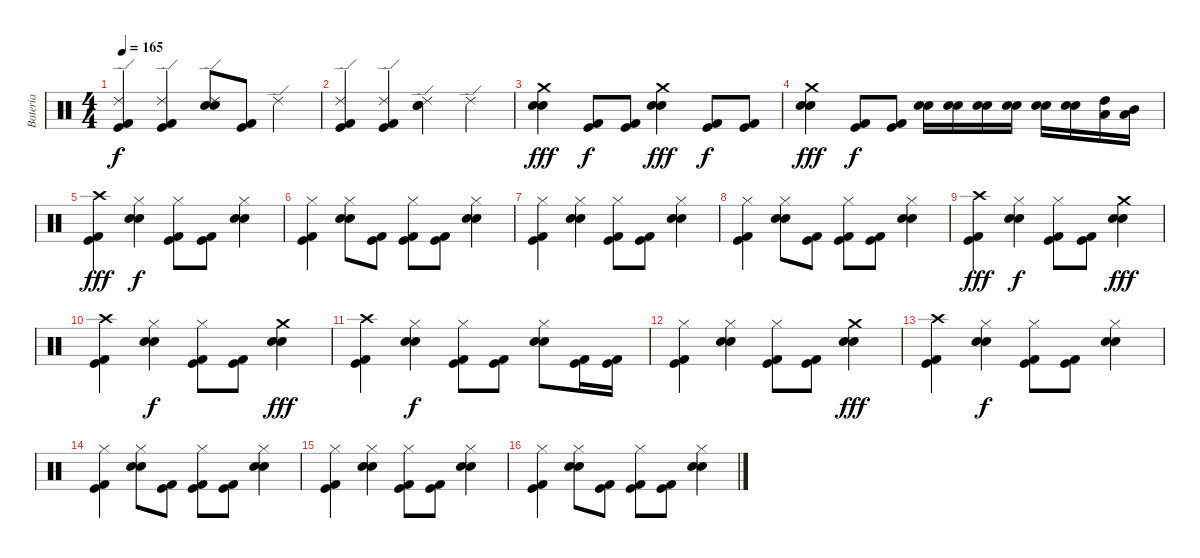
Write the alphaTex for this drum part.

\track ("Bateria" "Bateria") {instrument percussion}
\staff {score}
\articulation defaults
\ts (4 4)
\tempo 165
\clef neutral
\ks c
("Ride (edge) 2" "Kick (hit) 2" "Kick (hit)").4{dy f} ("Ride (edge) 2" "Kick (hit) 2" "Kick (hit)").4 ("Ride (edge) 2" "Electric Snare (hit)" "Snare (hit) 2").8 ("Kick (hit) 2" "Kick (hit)").8 "Ride (edge) 2".4 |
("Ride (edge) 2" "Kick (hit) 2" "Kick (hit)").4 ("Ride (edge) 2" "Kick (hit) 2" "Kick (hit)").4 ("Ride (edge) 2" "Electric Snare (hit)" "Snare (hit) 2").4 "Ride (edge) 2".4 |
("Crash medium (hit)" "Electric Snare (hit)" "Snare (hit) 2").4{dy fff} ("Kick (hit) 2" "Kick (hit)").8{dy f} ("Kick (hit) 2" "Kick (hit)").8 ("Crash medium (hit)" "Electric Snare (hit)" "Snare (hit) 2").4{dy fff} ("Kick (hit) 2" "Kick (hit)").8{dy f} ("Kick (hit) 2" "Kick (hit)").8 |
("Crash medium (hit)" "Electric Snare (hit)" "Snare (hit) 2").4{dy fff} ("Kick (hit) 2" "Kick (hit)").8{dy f} ("Kick (hit) 2" "Kick (hit)").8 ("Electric Snare (hit)" "Snare (hit) 2").16 ("Electric Snare (hit)" "Snare (hit) 2").16 ("Electric Snare (hit)" "Snare (hit) 2").16 ("Electric Snare (hit)" "Snare (hit) 2").16 ("Electric Snare (hit)" "Snare (hit) 2").16 ("Electric Snare (hit)" "Snare (hit) 2").16 ("High Tom (hit)" "Low Tom (hit)").16 ("Mid Tom (hit)" "Low Floor Tom (hit)").16 |
("Crash high (hit)" "Kick (hit) 2" "Kick (hit)").4{dy fff} ("Hi-Hat (closed)" "Electric Snare (hit)" "Snare (hit) 2").4{dy f} ("Hi-Hat (closed)" "Kick (hit) 2" "Kick (hit)").8 ("Kick (hit) 2" "Kick (hit)").8 ("Hi-Hat (closed)" "Electric Snare (hit)" "Snare (hit) 2").4 |
("Hi-Hat (closed)" "Kick (hit) 2" "Kick (hit)").4 ("Hi-Hat (closed)" "Electric Snare (hit)" "Snare (hit) 2").8 ("Kick (hit) 2" "Kick (hit)").8 ("Hi-Hat (closed)" "Kick (hit) 2" "Kick (hit)").8 ("Kick (hit) 2" "Kick (hit)").8 ("Hi-Hat (closed)" "Electric Snare (hit)" "Snare (hit) 2").4 |
("Hi-Hat (closed)" "Kick (hit) 2" "Kick (hit)").4 ("Hi-Hat (closed)" "Electric Snare (hit)" "Snare (hit) 2").4 ("Hi-Hat (closed)" "Kick (hit) 2" "Kick (hit)").8 ("Kick (hit) 2" "Kick (hit)").8 ("Hi-Hat (closed)" "Electric Snare (hit)" "Snare (hit) 2").4 |
("Hi-Hat (closed)" "Kick (hit) 2" "Kick (hit)").4 ("Hi-Hat (closed)" "Electric Snare (hit)" "Snare (hit) 2").8 ("Kick (hit) 2" "Kick (hit)").8 ("Hi-Hat (closed)" "Kick (hit) 2" "Kick (hit)").8 ("Kick (hit) 2" "Kick (hit)").8 ("Hi-Hat (closed)" "Electric Snare (hit)" "Snare (hit) 2").4 |
("Crash high (hit)" "Kick (hit) 2" "Kick (hit)").4{dy fff} ("Hi-Hat (closed)" "Electric Snare (hit)" "Snare (hit) 2").4{dy f} ("Hi-Hat (closed)" "Kick (hit) 2" "Kick (hit)").8 ("Kick (hit) 2" "Kick (hit)").8 ("Crash medium (hit)" "Electric Snare (hit)" "Snare (hit) 2").4{dy fff} |
("Crash high (hit)" "Kick (hit) 2" "Kick (hit)").4 ("Hi-Hat (closed)" "Electric Snare (hit)" "Snare (hit) 2").4{dy f} ("Hi-Hat (closed)" "Kick (hit) 2" "Kick (hit)").8 ("Kick (hit) 2" "Kick (hit)").8 ("Crash medium (hit)" "Electric Snare (hit)" "Snare (hit) 2").4{dy fff} |
("Crash high (hit)" "Kick (hit) 2" "Kick (hit)").4 ("Hi-Hat (closed)" "Electric Snare (hit)" "Snare (hit) 2").4{dy f} ("Hi-Hat (closed)" "Kick (hit) 2" "Kick (hit)").8 ("Kick (hit) 2" "Kick (hit)").8 ("Hi-Hat (closed)" "Electric Snare (hit)" "Snare (hit) 2").8 ("Kick (hit) 2" "Kick (hit)").16 ("Kick (hit) 2" "Kick (hit)").16 |
("Hi-Hat (closed)" "Kick (hit) 2" "Kick (hit)").4 ("Hi-Hat (closed)" "Electric Snare (hit)" "Snare (hit) 2").4 ("Hi-Hat (closed)" "Kick (hit) 2" "Kick (hit)").8 ("Kick (hit) 2" "Kick (hit)").8 ("Crash medium (hit)" "Electric Snare (hit)" "Snare (hit) 2").4{dy fff} |
("Crash high (hit)" "Kick (hit) 2" "Kick (hit)").4 ("Hi-Hat (closed)" "Electric Snare (hit)" "Snare (hit) 2").4{dy f} ("Hi-Hat (closed)" "Kick (hit) 2" "Kick (hit)").8 ("Kick (hit) 2" "Kick (hit)").8 ("Hi-Hat (closed)" "Electric Snare (hit)" "Snare (hit) 2").4 |
("Hi-Hat (closed)" "Kick (hit) 2" "Kick (hit)").4 ("Hi-Hat (closed)" "Electric Snare (hit)" "Snare (hit) 2").8 ("Kick (hit) 2" "Kick (hit)").8 ("Hi-Hat (closed)" "Kick (hit) 2" "Kick (hit)").8 ("Kick (hit) 2" "Kick (hit)").8 ("Hi-Hat (closed)" "Electric Snare (hit)" "Snare (hit) 2").4 |
("Hi-Hat (closed)" "Kick (hit) 2" "Kick (hit)").4 ("Hi-Hat (closed)" "Electric Snare (hit)" "Snare (hit) 2").4 ("Hi-Hat (closed)" "Kick (hit) 2" "Kick (hit)").8 ("Kick (hit) 2" "Kick (hit)").8 ("Hi-Hat (closed)" "Electric Snare (hit)" "Snare (hit) 2").4 |
("Hi-Hat (closed)" "Kick (hit) 2" "Kick (hit)").4 ("Hi-Hat (closed)" "Electric Snare (hit)" "Snare (hit) 2").8 ("Kick (hit) 2" "Kick (hit)").8 ("Hi-Hat (closed)" "Kick (hit) 2" "Kick (hit)").8 ("Kick (hit) 2" "Kick (hit)").8 ("Hi-Hat (closed)" "Electric Snare (hit)" "Snare (hit) 2").4
